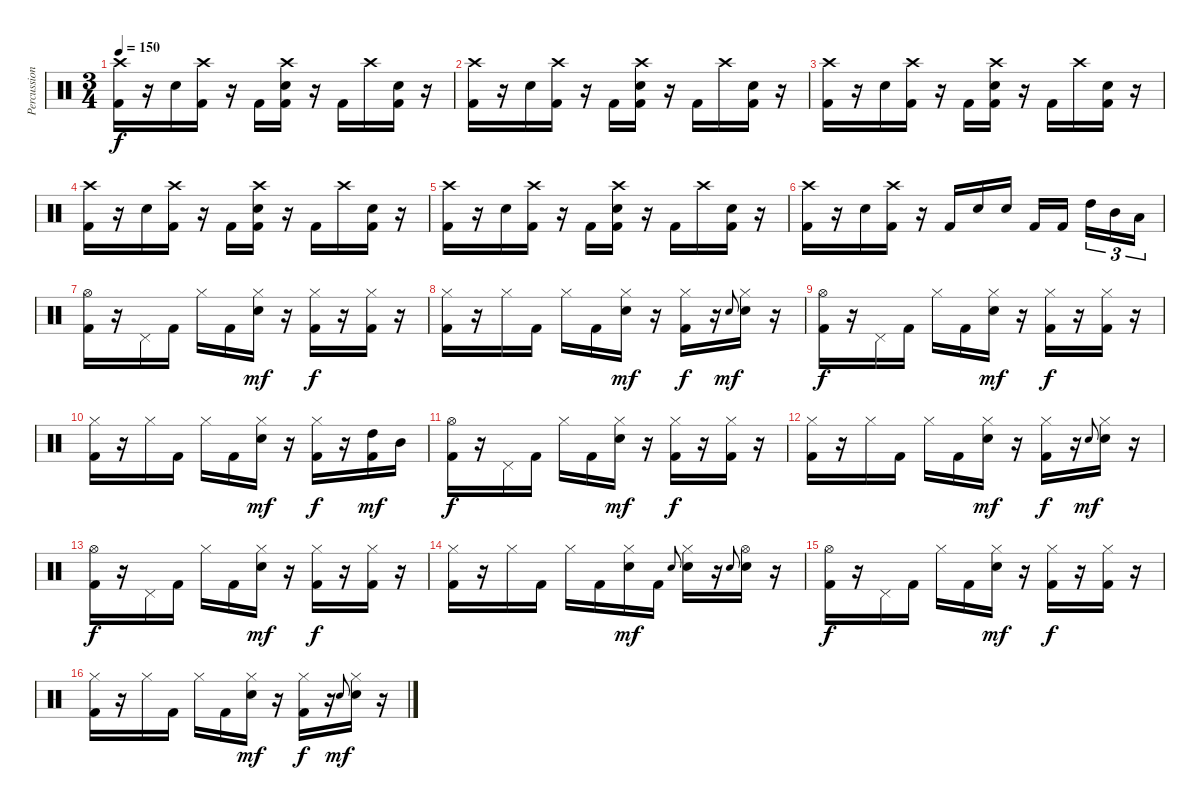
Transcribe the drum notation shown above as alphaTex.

\track ("Percussion" "Percussion") {instrument percussion}
\staff {score}
\articulation defaults
\ts (3 4)
\tempo 150
\clef neutral
\ks c
("Crash high (hit)" "Kick (hit) 2").16{dy f} r.16 "Electric Snare (hit)".16 ("Crash high (hit)" "Kick (hit) 2").16 r.16 "Kick (hit) 2".16 ("Crash high (hit)" "Electric Snare (hit)" "Kick (hit) 2").16 r.16 "Kick (hit) 2".16 "Crash high (hit)".16 ("Electric Snare (hit)" "Kick (hit) 2").16 r.16 |
("Crash high (hit)" "Kick (hit) 2").16 r.16 "Electric Snare (hit)".16 ("Crash high (hit)" "Kick (hit) 2").16 r.16 "Kick (hit) 2".16 ("Crash high (hit)" "Electric Snare (hit)" "Kick (hit) 2").16 r.16 "Kick (hit) 2".16 "Crash high (hit)".16 ("Electric Snare (hit)" "Kick (hit) 2").16 r.16 |
("Crash high (hit)" "Kick (hit) 2").16 r.16 "Electric Snare (hit)".16 ("Crash high (hit)" "Kick (hit) 2").16 r.16 "Kick (hit) 2".16 ("Crash high (hit)" "Electric Snare (hit)" "Kick (hit) 2").16 r.16 "Kick (hit) 2".16 "Crash high (hit)".16 ("Electric Snare (hit)" "Kick (hit) 2").16 r.16 |
("Crash high (hit)" "Kick (hit) 2").16 r.16 "Electric Snare (hit)".16 ("Crash high (hit)" "Kick (hit) 2").16 r.16 "Kick (hit) 2".16 ("Crash high (hit)" "Electric Snare (hit)" "Kick (hit) 2").16 r.16 "Kick (hit) 2".16 "Crash high (hit)".16 ("Electric Snare (hit)" "Kick (hit) 2").16 r.16 |
("Crash high (hit)" "Kick (hit) 2").16 r.16 "Electric Snare (hit)".16 ("Crash high (hit)" "Kick (hit) 2").16 r.16 "Kick (hit) 2".16 ("Crash high (hit)" "Electric Snare (hit)" "Kick (hit) 2").16 r.16 "Kick (hit) 2".16 "Crash high (hit)".16 ("Electric Snare (hit)" "Kick (hit) 2").16 r.16 |
("Crash high (hit)" "Kick (hit) 2").16 r.16 "Electric Snare (hit)".16 ("Crash high (hit)" "Kick (hit) 2").16 r.16 "Kick (hit) 2".16 "Electric Snare (hit)".16 "Electric Snare (hit)".16 "Kick (hit) 2".16 "Kick (hit) 2".16{beam splitsecondary} "High Tom (hit)".16{tu (3 2)} "Mid Tom (hit)".16{tu (3 2)} "Low Tom (hit)".16{tu (3 2)} |
("Hi-Hat (open)" "Kick (hit) 2").16 r.16 "Pedal Hi-Hat (hit)".16 "Kick (hit) 2".16 "Hi-Hat (closed)".16 "Kick (hit) 2".16 ("Hi-Hat (closed)" "Electric Snare (hit)").16{dy mf} r.16 ("Hi-Hat (closed)" "Kick (hit) 2").16{dy f} r.16 ("Hi-Hat (closed)" "Kick (hit) 2").16 r.16 |
("Hi-Hat (closed)" "Kick (hit) 2").16 r.16 "Hi-Hat (closed)".16 "Kick (hit) 2".16 "Hi-Hat (closed)".16 "Kick (hit) 2".16 ("Hi-Hat (closed)" "Electric Snare (hit)").16{dy mf} r.16 ("Hi-Hat (closed)" "Kick (hit) 2").16{dy f} r.16 "Electric Snare (hit)"{h}.8{gr onbeat dy mf} ("Hi-Hat (closed)" "Electric Snare (hit)").16 r.16 |
("Hi-Hat (open)" "Kick (hit) 2").16{dy f} r.16 "Pedal Hi-Hat (hit)".16 "Kick (hit) 2".16 "Hi-Hat (closed)".16 "Kick (hit) 2".16 ("Hi-Hat (closed)" "Electric Snare (hit)").16{dy mf} r.16 ("Hi-Hat (closed)" "Kick (hit) 2").16{dy f} r.16 ("Hi-Hat (closed)" "Kick (hit) 2").16 r.16 |
("Hi-Hat (closed)" "Kick (hit) 2").16 r.16 "Hi-Hat (closed)".16 "Kick (hit) 2".16 "Hi-Hat (closed)".16 "Kick (hit) 2".16 ("Hi-Hat (closed)" "Electric Snare (hit)").16{dy mf} r.16 ("Hi-Hat (closed)" "Kick (hit) 2").16{dy f} r.16 ("High Tom (hit)" "Kick (hit) 2").16{dy mf} "Mid Tom (hit)".16 |
("Hi-Hat (open)" "Kick (hit) 2").16{dy f} r.16 "Pedal Hi-Hat (hit)".16 "Kick (hit) 2".16 "Hi-Hat (closed)".16 "Kick (hit) 2".16 ("Hi-Hat (closed)" "Electric Snare (hit)").16{dy mf} r.16 ("Hi-Hat (closed)" "Kick (hit) 2").16{dy f} r.16 ("Hi-Hat (closed)" "Kick (hit) 2").16 r.16 |
("Hi-Hat (closed)" "Kick (hit) 2").16 r.16 "Hi-Hat (closed)".16 "Kick (hit) 2".16 "Hi-Hat (closed)".16 "Kick (hit) 2".16 ("Hi-Hat (closed)" "Electric Snare (hit)").16{dy mf} r.16 ("Hi-Hat (closed)" "Kick (hit) 2").16{dy f} r.16 "Electric Snare (hit)"{h}.8{gr onbeat dy mf} ("Hi-Hat (closed)" "Electric Snare (hit)").16 r.16 |
("Hi-Hat (open)" "Kick (hit) 2").16{dy f} r.16 "Pedal Hi-Hat (hit)".16 "Kick (hit) 2".16 "Hi-Hat (closed)".16 "Kick (hit) 2".16 ("Hi-Hat (closed)" "Electric Snare (hit)").16{dy mf} r.16 ("Hi-Hat (closed)" "Kick (hit) 2").16{dy f} r.16 ("Hi-Hat (closed)" "Kick (hit) 2").16 r.16 |
("Hi-Hat (closed)" "Kick (hit) 2").16 r.16 "Hi-Hat (closed)".16 "Kick (hit) 2".16 "Hi-Hat (closed)".16 "Kick (hit) 2".16 ("Hi-Hat (closed)" "Electric Snare (hit)").16{dy mf} "Kick (hit) 2".16 "Electric Snare (hit)"{h}.8{gr onbeat} ("Hi-Hat (closed)" "Electric Snare (hit)").16 r.16 "Electric Snare (hit)"{h}.8{gr onbeat} ("Hi-Hat (open)" "Electric Snare (hit)").16 r.16 |
("Hi-Hat (open)" "Kick (hit) 2").16{dy f} r.16 "Pedal Hi-Hat (hit)".16 "Kick (hit) 2".16 "Hi-Hat (closed)".16 "Kick (hit) 2".16 ("Hi-Hat (closed)" "Electric Snare (hit)").16{dy mf} r.16 ("Hi-Hat (closed)" "Kick (hit) 2").16{dy f} r.16 ("Hi-Hat (closed)" "Kick (hit) 2").16 r.16 |
("Hi-Hat (closed)" "Kick (hit) 2").16 r.16 "Hi-Hat (closed)".16 "Kick (hit) 2".16 "Hi-Hat (closed)".16 "Kick (hit) 2".16 ("Hi-Hat (closed)" "Electric Snare (hit)").16{dy mf} r.16 ("Hi-Hat (closed)" "Kick (hit) 2").16{dy f} r.16 "Electric Snare (hit)"{h}.8{gr onbeat dy mf} ("Hi-Hat (closed)" "Electric Snare (hit)").16 r.16
